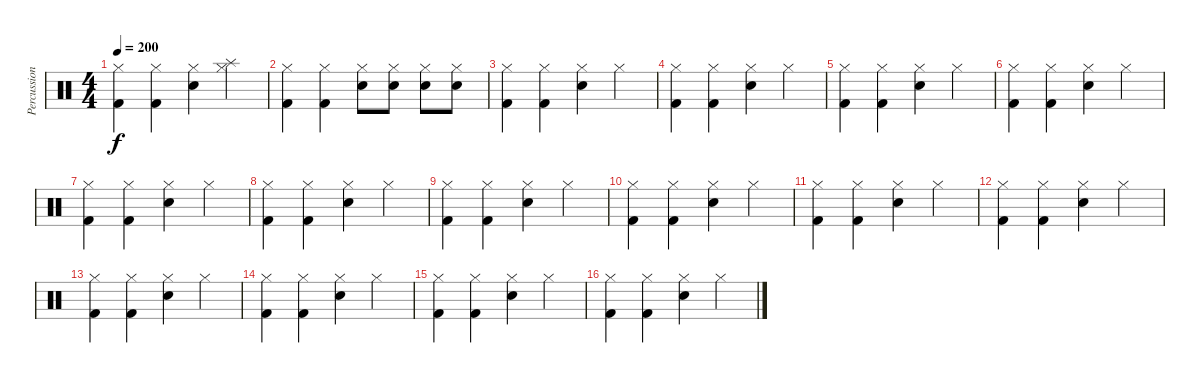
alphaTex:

\track ("Percussion" "Percussion") {instrument percussion}
\staff {score}
\articulation defaults
\ts (4 4)
\tempo 200
\clef neutral
\ks c
("Kick (hit) 2" "Hi-Hat (closed)").4{dy f} ("Kick (hit) 2" "Hi-Hat (closed)").4 ("Snare (hit) 2" "Hi-Hat (closed)").4 ("Splash (hit)" "Hi-Hat (closed)").4 |
("Kick (hit) 2" "Hi-Hat (closed)").4 ("Kick (hit) 2" "Hi-Hat (closed)").4 ("Snare (hit) 2" "Hi-Hat (closed)").8 ("Snare (hit) 2" "Hi-Hat (closed)").8 ("Snare (hit) 2" "Hi-Hat (closed)").8 ("Snare (hit) 2" "Hi-Hat (closed)").8 |
("Kick (hit) 2" "Hi-Hat (closed)").4 ("Kick (hit) 2" "Hi-Hat (closed)").4 ("Snare (hit) 2" "Hi-Hat (closed)").4 "Hi-Hat (closed)".4 |
("Kick (hit) 2" "Hi-Hat (closed)").4 ("Kick (hit) 2" "Hi-Hat (closed)").4 ("Snare (hit) 2" "Hi-Hat (closed)").4 "Hi-Hat (closed)".4 |
("Kick (hit) 2" "Hi-Hat (closed)").4 ("Kick (hit) 2" "Hi-Hat (closed)").4 ("Snare (hit) 2" "Hi-Hat (closed)").4 "Hi-Hat (closed)".4 |
("Kick (hit) 2" "Hi-Hat (closed)").4 ("Kick (hit) 2" "Hi-Hat (closed)").4 ("Snare (hit) 2" "Hi-Hat (closed)").4 "Hi-Hat (closed)".4 |
("Kick (hit) 2" "Hi-Hat (closed)").4 ("Kick (hit) 2" "Hi-Hat (closed)").4 ("Snare (hit) 2" "Hi-Hat (closed)").4 "Hi-Hat (closed)".4 |
("Kick (hit) 2" "Hi-Hat (closed)").4 ("Kick (hit) 2" "Hi-Hat (closed)").4 ("Snare (hit) 2" "Hi-Hat (closed)").4 "Hi-Hat (closed)".4 |
("Kick (hit) 2" "Hi-Hat (closed)").4 ("Kick (hit) 2" "Hi-Hat (closed)").4 ("Snare (hit) 2" "Hi-Hat (closed)").4 "Hi-Hat (closed)".4 |
("Kick (hit) 2" "Hi-Hat (closed)").4 ("Kick (hit) 2" "Hi-Hat (closed)").4 ("Snare (hit) 2" "Hi-Hat (closed)").4 "Hi-Hat (closed)".4 |
("Kick (hit) 2" "Hi-Hat (closed)").4 ("Kick (hit) 2" "Hi-Hat (closed)").4 ("Snare (hit) 2" "Hi-Hat (closed)").4 "Hi-Hat (closed)".4 |
("Kick (hit) 2" "Hi-Hat (closed)").4 ("Kick (hit) 2" "Hi-Hat (closed)").4 ("Snare (hit) 2" "Hi-Hat (closed)").4 "Hi-Hat (closed)".4 |
("Kick (hit) 2" "Hi-Hat (closed)").4 ("Kick (hit) 2" "Hi-Hat (closed)").4 ("Snare (hit) 2" "Hi-Hat (closed)").4 "Hi-Hat (closed)".4 |
("Kick (hit) 2" "Hi-Hat (closed)").4 ("Kick (hit) 2" "Hi-Hat (closed)").4 ("Snare (hit) 2" "Hi-Hat (closed)").4 "Hi-Hat (closed)".4 |
("Kick (hit) 2" "Hi-Hat (closed)").4 ("Kick (hit) 2" "Hi-Hat (closed)").4 ("Snare (hit) 2" "Hi-Hat (closed)").4 "Hi-Hat (closed)".4 |
("Kick (hit) 2" "Hi-Hat (closed)").4 ("Kick (hit) 2" "Hi-Hat (closed)").4 ("Snare (hit) 2" "Hi-Hat (closed)").4 "Hi-Hat (closed)".4
